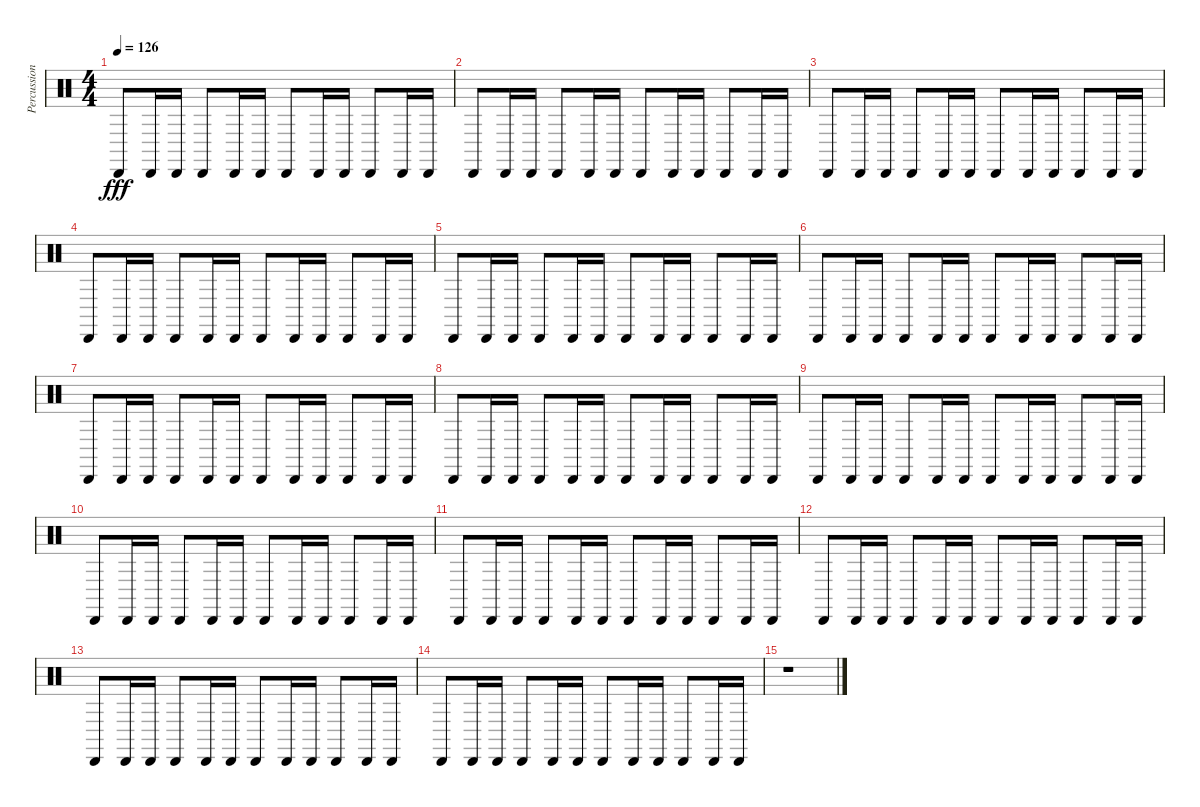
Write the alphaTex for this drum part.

\track ("Percussions" "Percussion") {instrument percussion}
\staff {score}
\articulation defaults
\ts (4 4)
\tempo 126
\clef neutral
\ks c "Cabasa (hit)".8{dy fff} "Cabasa (hit)".16 "Cabasa (hit)".16 "Cabasa (hit)".8 "Cabasa (hit)".16 "Cabasa (hit)".16 "Cabasa (hit)".8 "Cabasa (hit)".16 "Cabasa (hit)".16 "Cabasa (hit)".8 "Cabasa (hit)".16 "Cabasa (hit)".16
|
"Cabasa (hit)".8 "Cabasa (hit)".16 "Cabasa (hit)".16 "Cabasa (hit)".8 "Cabasa (hit)".16 "Cabasa (hit)".16 "Cabasa (hit)".8 "Cabasa (hit)".16 "Cabasa (hit)".16 "Cabasa (hit)".8 "Cabasa (hit)".16 "Cabasa (hit)".16 |
"Cabasa (hit)".8 "Cabasa (hit)".16 "Cabasa (hit)".16 "Cabasa (hit)".8 "Cabasa (hit)".16 "Cabasa (hit)".16 "Cabasa (hit)".8 "Cabasa (hit)".16 "Cabasa (hit)".16 "Cabasa (hit)".8 "Cabasa (hit)".16 "Cabasa (hit)".16 |
"Cabasa (hit)".8 "Cabasa (hit)".16 "Cabasa (hit)".16 "Cabasa (hit)".8 "Cabasa (hit)".16 "Cabasa (hit)".16 "Cabasa (hit)".8 "Cabasa (hit)".16 "Cabasa (hit)".16 "Cabasa (hit)".8 "Cabasa (hit)".16 "Cabasa (hit)".16 |
"Cabasa (hit)".8 "Cabasa (hit)".16 "Cabasa (hit)".16 "Cabasa (hit)".8 "Cabasa (hit)".16 "Cabasa (hit)".16 "Cabasa (hit)".8 "Cabasa (hit)".16 "Cabasa (hit)".16 "Cabasa (hit)".8 "Cabasa (hit)".16 "Cabasa (hit)".16 |
"Cabasa (hit)".8 "Cabasa (hit)".16 "Cabasa (hit)".16 "Cabasa (hit)".8 "Cabasa (hit)".16 "Cabasa (hit)".16 "Cabasa (hit)".8 "Cabasa (hit)".16 "Cabasa (hit)".16 "Cabasa (hit)".8 "Cabasa (hit)".16 "Cabasa (hit)".16 |
"Cabasa (hit)".8 "Cabasa (hit)".16 "Cabasa (hit)".16 "Cabasa (hit)".8 "Cabasa (hit)".16 "Cabasa (hit)".16 "Cabasa (hit)".8 "Cabasa (hit)".16 "Cabasa (hit)".16 "Cabasa (hit)".8 "Cabasa (hit)".16 "Cabasa (hit)".16 |
"Cabasa (hit)".8 "Cabasa (hit)".16 "Cabasa (hit)".16 "Cabasa (hit)".8 "Cabasa (hit)".16 "Cabasa (hit)".16 "Cabasa (hit)".8 "Cabasa (hit)".16 "Cabasa (hit)".16 "Cabasa (hit)".8 "Cabasa (hit)".16 "Cabasa (hit)".16 |
"Cabasa (hit)".8 "Cabasa (hit)".16 "Cabasa (hit)".16 "Cabasa (hit)".8 "Cabasa (hit)".16 "Cabasa (hit)".16 "Cabasa (hit)".8 "Cabasa (hit)".16 "Cabasa (hit)".16 "Cabasa (hit)".8 "Cabasa (hit)".16 "Cabasa (hit)".16 |
"Cabasa (hit)".8 "Cabasa (hit)".16 "Cabasa (hit)".16 "Cabasa (hit)".8 "Cabasa (hit)".16 "Cabasa (hit)".16 "Cabasa (hit)".8 "Cabasa (hit)".16 "Cabasa (hit)".16 "Cabasa (hit)".8 "Cabasa (hit)".16 "Cabasa (hit)".16 |
"Cabasa (hit)".8 "Cabasa (hit)".16 "Cabasa (hit)".16 "Cabasa (hit)".8 "Cabasa (hit)".16 "Cabasa (hit)".16 "Cabasa (hit)".8 "Cabasa (hit)".16 "Cabasa (hit)".16 "Cabasa (hit)".8 "Cabasa (hit)".16 "Cabasa (hit)".16 |
"Cabasa (hit)".8 "Cabasa (hit)".16 "Cabasa (hit)".16 "Cabasa (hit)".8 "Cabasa (hit)".16 "Cabasa (hit)".16 "Cabasa (hit)".8 "Cabasa (hit)".16 "Cabasa (hit)".16 "Cabasa (hit)".8 "Cabasa (hit)".16 "Cabasa (hit)".16 |
"Cabasa (hit)".8 "Cabasa (hit)".16 "Cabasa (hit)".16 "Cabasa (hit)".8 "Cabasa (hit)".16 "Cabasa (hit)".16 "Cabasa (hit)".8 "Cabasa (hit)".16 "Cabasa (hit)".16 "Cabasa (hit)".8 "Cabasa (hit)".16 "Cabasa (hit)".16 |
"Cabasa (hit)".8 "Cabasa (hit)".16 "Cabasa (hit)".16 "Cabasa (hit)".8 "Cabasa (hit)".16 "Cabasa (hit)".16 "Cabasa (hit)".8 "Cabasa (hit)".16 "Cabasa (hit)".16 "Cabasa (hit)".8 "Cabasa (hit)".16 "Cabasa (hit)".16 |
r.1
